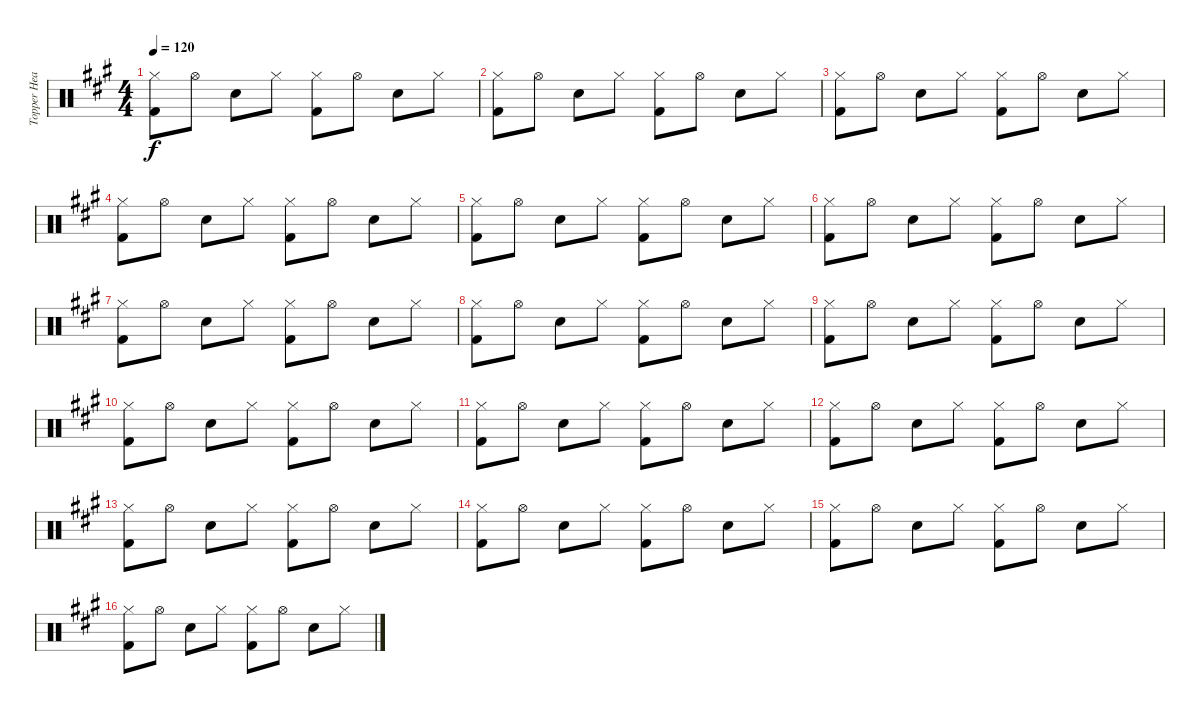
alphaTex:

\track ("Topper Headon (Drum)" "Topper Hea") {instrument percussion}
\staff {score}
\articulation defaults
\ts (4 4)
\tempo 120
\clef neutral
\ks a
("Hi-Hat (closed)" "Kick (hit) 2").8{dy f} "Hi-Hat (open)".8 "Electric Snare (hit)".8 "Hi-Hat (closed)".8 ("Hi-Hat (closed)" "Kick (hit) 2").8 "Hi-Hat (open)".8 "Electric Snare (hit)".8 "Hi-Hat (closed)".8 |
("Hi-Hat (closed)" "Kick (hit) 2").8 "Hi-Hat (open)".8 "Electric Snare (hit)".8 "Hi-Hat (closed)".8 ("Hi-Hat (closed)" "Kick (hit) 2").8 "Hi-Hat (open)".8 "Electric Snare (hit)".8 "Hi-Hat (closed)".8 |
("Hi-Hat (closed)" "Kick (hit) 2").8 "Hi-Hat (open)".8 "Electric Snare (hit)".8 "Hi-Hat (closed)".8 ("Hi-Hat (closed)" "Kick (hit) 2").8 "Hi-Hat (open)".8 "Electric Snare (hit)".8 "Hi-Hat (closed)".8 |
("Hi-Hat (closed)" "Kick (hit) 2").8 "Hi-Hat (open)".8 "Electric Snare (hit)".8 "Hi-Hat (closed)".8 ("Hi-Hat (closed)" "Kick (hit) 2").8 "Hi-Hat (open)".8 "Electric Snare (hit)".8 "Hi-Hat (closed)".8 |
("Hi-Hat (closed)" "Kick (hit) 2").8 "Hi-Hat (open)".8 "Electric Snare (hit)".8 "Hi-Hat (closed)".8 ("Hi-Hat (closed)" "Kick (hit) 2").8 "Hi-Hat (open)".8 "Electric Snare (hit)".8 "Hi-Hat (closed)".8 |
("Hi-Hat (closed)" "Kick (hit) 2").8 "Hi-Hat (open)".8 "Electric Snare (hit)".8 "Hi-Hat (closed)".8 ("Hi-Hat (closed)" "Kick (hit) 2").8 "Hi-Hat (open)".8 "Electric Snare (hit)".8 "Hi-Hat (closed)".8 |
("Hi-Hat (closed)" "Kick (hit) 2").8 "Hi-Hat (open)".8 "Electric Snare (hit)".8 "Hi-Hat (closed)".8 ("Hi-Hat (closed)" "Kick (hit) 2").8 "Hi-Hat (open)".8 "Electric Snare (hit)".8 "Hi-Hat (closed)".8 |
("Hi-Hat (closed)" "Kick (hit) 2").8 "Hi-Hat (open)".8 "Electric Snare (hit)".8 "Hi-Hat (closed)".8 ("Hi-Hat (closed)" "Kick (hit) 2").8 "Hi-Hat (open)".8 "Electric Snare (hit)".8 "Hi-Hat (closed)".8 |
("Hi-Hat (closed)" "Kick (hit) 2").8 "Hi-Hat (open)".8 "Electric Snare (hit)".8 "Hi-Hat (closed)".8 ("Hi-Hat (closed)" "Kick (hit) 2").8 "Hi-Hat (open)".8 "Electric Snare (hit)".8 "Hi-Hat (closed)".8 |
("Hi-Hat (closed)" "Kick (hit) 2").8 "Hi-Hat (open)".8 "Electric Snare (hit)".8 "Hi-Hat (closed)".8 ("Hi-Hat (closed)" "Kick (hit) 2").8 "Hi-Hat (open)".8 "Electric Snare (hit)".8 "Hi-Hat (closed)".8 |
("Hi-Hat (closed)" "Kick (hit) 2").8 "Hi-Hat (open)".8 "Electric Snare (hit)".8 "Hi-Hat (closed)".8 ("Hi-Hat (closed)" "Kick (hit) 2").8 "Hi-Hat (open)".8 "Electric Snare (hit)".8 "Hi-Hat (closed)".8 |
("Hi-Hat (closed)" "Kick (hit) 2").8 "Hi-Hat (open)".8 "Electric Snare (hit)".8 "Hi-Hat (closed)".8 ("Hi-Hat (closed)" "Kick (hit) 2").8 "Hi-Hat (open)".8 "Electric Snare (hit)".8 "Hi-Hat (closed)".8 |
("Hi-Hat (closed)" "Kick (hit) 2").8 "Hi-Hat (open)".8 "Electric Snare (hit)".8 "Hi-Hat (closed)".8 ("Hi-Hat (closed)" "Kick (hit) 2").8 "Hi-Hat (open)".8 "Electric Snare (hit)".8 "Hi-Hat (closed)".8 |
("Hi-Hat (closed)" "Kick (hit) 2").8 "Hi-Hat (open)".8 "Electric Snare (hit)".8 "Hi-Hat (closed)".8 ("Hi-Hat (closed)" "Kick (hit) 2").8 "Hi-Hat (open)".8 "Electric Snare (hit)".8 "Hi-Hat (closed)".8 |
("Hi-Hat (closed)" "Kick (hit) 2").8 "Hi-Hat (open)".8 "Electric Snare (hit)".8 "Hi-Hat (closed)".8 ("Hi-Hat (closed)" "Kick (hit) 2").8 "Hi-Hat (open)".8 "Electric Snare (hit)".8 "Hi-Hat (closed)".8 |
("Hi-Hat (closed)" "Kick (hit) 2").8 "Hi-Hat (open)".8 "Electric Snare (hit)".8 "Hi-Hat (closed)".8 ("Hi-Hat (closed)" "Kick (hit) 2").8 "Hi-Hat (open)".8 "Electric Snare (hit)".8 "Hi-Hat (closed)".8
